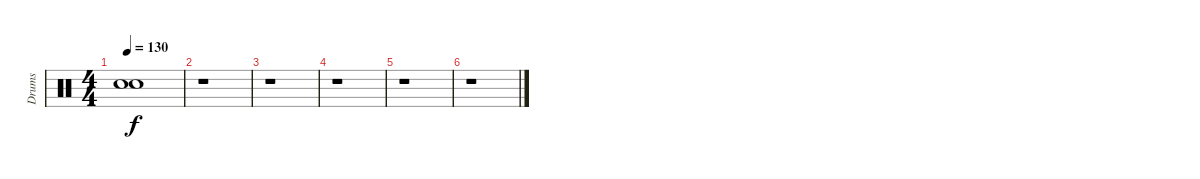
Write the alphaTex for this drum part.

\track ("Drums" "Drums") {instrument percussion}
\staff {score}
\articulation defaults
\ts (4 4)
\tempo 130
\clef neutral
\ks c
("Snare (hit)"{t} "Snare (hit)"{t}).1{dy f} |
r.1 |
r.1 |
r.1 |
r.1 |
r.1
